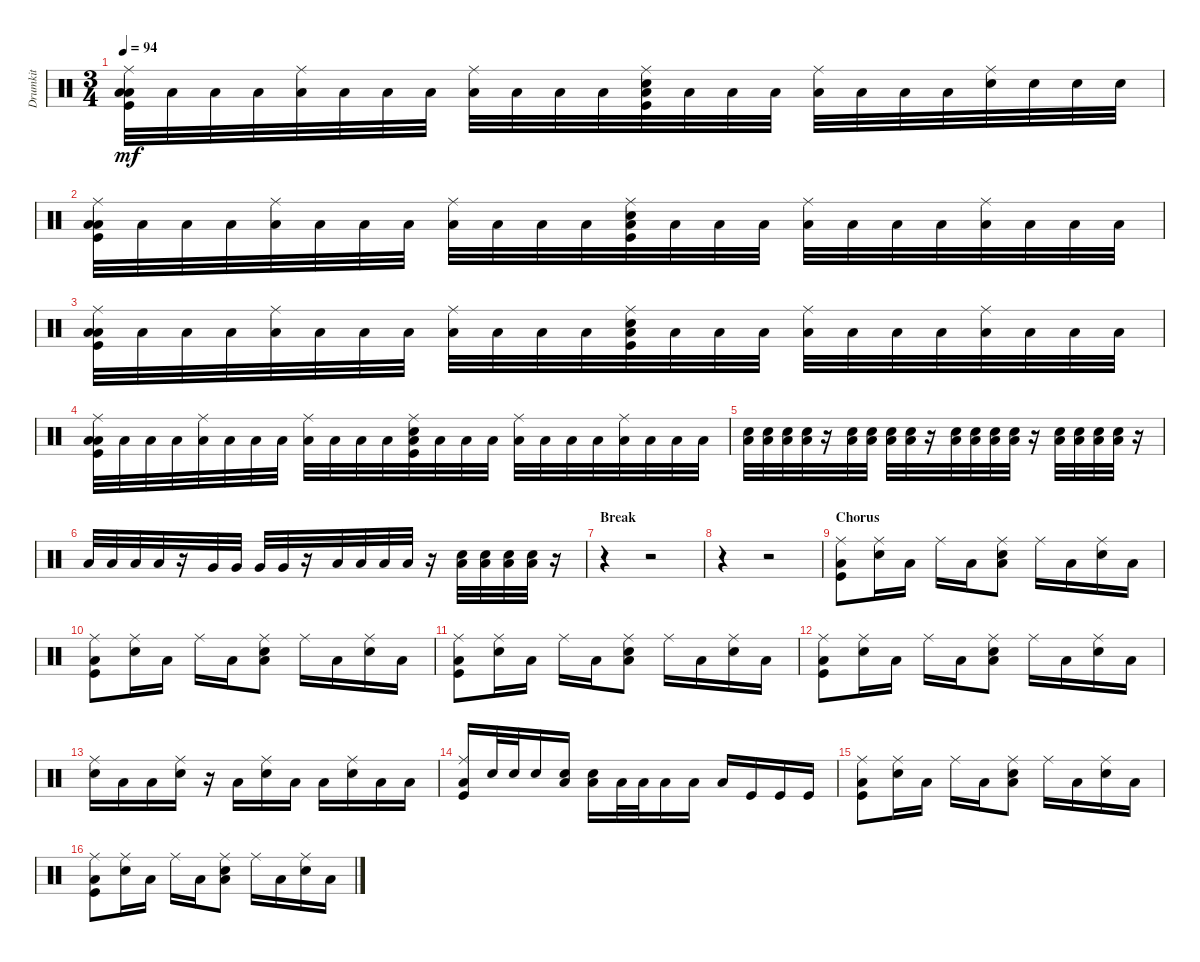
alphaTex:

\track ("Drumkit" "Drumkit") {instrument percussion}
\staff {score}
\articulation defaults
\ts (3 4)
\tempo 94
\clef neutral
\ks c
("Low Tom (hit)" "Ride (middle)" "Kick (hit)" "Low Floor Tom (hit)").32{dy mf} "Low Tom (hit)".32 "Low Tom (hit)".32 "Low Tom (hit)".32 ("Low Tom (hit)" "Ride (middle)").32 "Low Tom (hit)".32 "Low Tom (hit)".32 "Low Tom (hit)".32 ("Low Tom (hit)" "Ride (middle)").32 "Low Tom (hit)".32 "Low Tom (hit)".32 "Low Tom (hit)".32 ("Ride (middle)" "Kick (hit)" "Snare (hit) 2" "Low Tom (hit)").32 "Low Tom (hit)".32 "Low Tom (hit)".32 "Low Tom (hit)".32 ("Low Tom (hit)" "Ride (middle)").32 "Low Tom (hit)".32 "Low Tom (hit)".32 "Low Tom (hit)".32 ("Ride (middle)" "Snare (hit) 2").32 "Snare (hit) 2".32 "Snare (hit) 2".32 "Snare (hit) 2".32 |
("Low Tom (hit)" "Ride (middle)" "Kick (hit)" "Low Floor Tom (hit)").32 "Low Tom (hit)".32 "Low Tom (hit)".32 "Low Tom (hit)".32 ("Low Tom (hit)" "Ride (middle)").32 "Low Tom (hit)".32 "Low Tom (hit)".32 "Low Tom (hit)".32 ("Low Tom (hit)" "Ride (middle)").32 "Low Tom (hit)".32 "Low Tom (hit)".32 "Low Tom (hit)".32 ("Ride (middle)" "Kick (hit)" "Snare (hit) 2" "Low Tom (hit)").32 "Low Tom (hit)".32 "Low Tom (hit)".32 "Low Tom (hit)".32 ("Low Tom (hit)" "Ride (middle)").32 "Low Tom (hit)".32 "Low Tom (hit)".32 "Low Tom (hit)".32 ("Low Tom (hit)" "Ride (middle)").32 "Low Tom (hit)".32 "Low Tom (hit)".32 "Low Tom (hit)".32 |
("Low Tom (hit)" "Ride (middle)" "Kick (hit)" "Low Floor Tom (hit)").32 "Low Tom (hit)".32 "Low Tom (hit)".32 "Low Tom (hit)".32 ("Low Tom (hit)" "Ride (middle)").32 "Low Tom (hit)".32 "Low Tom (hit)".32 "Low Tom (hit)".32 ("Low Tom (hit)" "Ride (middle)").32 "Low Tom (hit)".32 "Low Tom (hit)".32 "Low Tom (hit)".32 ("Ride (middle)" "Kick (hit)" "Snare (hit) 2" "Low Tom (hit)").32 "Low Tom (hit)".32 "Low Tom (hit)".32 "Low Tom (hit)".32 ("Low Tom (hit)" "Ride (middle)").32 "Low Tom (hit)".32 "Low Tom (hit)".32 "Low Tom (hit)".32 ("Low Tom (hit)" "Ride (middle)").32 "Low Tom (hit)".32 "Low Tom (hit)".32 "Low Tom (hit)".32 |
("Low Tom (hit)" "Ride (middle)" "Kick (hit)" "Low Floor Tom (hit)").32 "Low Tom (hit)".32 "Low Tom (hit)".32 "Low Tom (hit)".32 ("Low Tom (hit)" "Ride (middle)").32 "Low Tom (hit)".32 "Low Tom (hit)".32 "Low Tom (hit)".32 ("Low Tom (hit)" "Ride (middle)").32 "Low Tom (hit)".32 "Low Tom (hit)".32 "Low Tom (hit)".32 ("Ride (middle)" "Kick (hit)" "Snare (hit) 2" "Low Tom (hit)").32 "Low Tom (hit)".32 "Low Tom (hit)".32 "Low Tom (hit)".32 ("Low Tom (hit)" "Ride (middle)").32 "Low Tom (hit)".32 "Low Tom (hit)".32 "Low Tom (hit)".32 ("Low Tom (hit)" "Ride (middle)").32 "Low Tom (hit)".32 "Low Tom (hit)".32 "Low Tom (hit)".32 |
("Snare (hit) 2" "Low Tom (hit)").32 ("Snare (hit) 2" "Low Tom (hit)").32 ("Snare (hit) 2" "Low Tom (hit)").32 ("Snare (hit) 2" "Low Tom (hit)").32 r.16 ("Snare (hit) 2" "Low Tom (hit)").32 ("Snare (hit) 2" "Low Tom (hit)").32 ("Snare (hit) 2" "Low Tom (hit)").32 ("Snare (hit) 2" "Low Tom (hit)").32 r.16 ("Snare (hit) 2" "Low Tom (hit)").32 ("Snare (hit) 2" "Low Tom (hit)").32 ("Snare (hit) 2" "Low Tom (hit)").32 ("Snare (hit) 2" "Low Tom (hit)").32 r.16 ("Snare (hit) 2" "Low Tom (hit)").32 ("Snare (hit) 2" "Low Tom (hit)").32 ("Snare (hit) 2" "Low Tom (hit)").32 ("Snare (hit) 2" "Low Tom (hit)").32 r.16 |
"Low Tom (hit)".32 "Low Tom (hit)".32 "Low Tom (hit)".32 "Low Tom (hit)".32 r.16 "Very Low Tom (hit)".32 "Very Low Tom (hit)".32 "Very Low Tom (hit)".32 "Very Low Tom (hit)".32 r.16 "Low Floor Tom (hit)".32 "Low Floor Tom (hit)".32 "Low Floor Tom (hit)".32 "Low Floor Tom (hit)".32 r.16 ("Snare (hit) 2" "Low Tom (hit)").32 ("Snare (hit) 2" "Low Tom (hit)").32 ("Snare (hit) 2" "Low Tom (hit)").32 ("Snare (hit) 2" "Low Tom (hit)").32 r.16 |
\section ("" "Break")
r.4 r.2 |
r.4 r.2 |
\section ("" "Chorus")
("Ride (middle)" "Kick (hit)" "Low Tom (hit)").8 ("Ride (middle)" "Snare (hit) 2").16 "Low Tom (hit)".16 "Ride (middle)".16 "Low Tom (hit)".16 ("Ride (middle)" "Snare (hit) 2" "Low Floor Tom (hit)").8 "Ride (middle)".16 "Low Tom (hit)".16 ("Ride (middle)" "Snare (hit) 2").16 "Low Tom (hit)".16 |
("Ride (middle)" "Kick (hit)" "Low Tom (hit)").8 ("Ride (middle)" "Snare (hit) 2").16 "Low Tom (hit)".16 "Ride (middle)".16 "Low Tom (hit)".16 ("Ride (middle)" "Snare (hit) 2" "Low Floor Tom (hit)").8 "Ride (middle)".16 "Low Tom (hit)".16 ("Ride (middle)" "Snare (hit) 2").16 "Low Tom (hit)".16 |
("Ride (middle)" "Kick (hit)" "Low Tom (hit)").8 ("Ride (middle)" "Snare (hit) 2").16 "Low Tom (hit)".16 "Ride (middle)".16 "Low Tom (hit)".16 ("Ride (middle)" "Snare (hit) 2" "Low Floor Tom (hit)").8 "Ride (middle)".16 "Low Tom (hit)".16 ("Ride (middle)" "Snare (hit) 2").16 "Low Tom (hit)".16 |
("Ride (middle)" "Kick (hit)" "Low Tom (hit)").8 ("Ride (middle)" "Snare (hit) 2").16 "Low Tom (hit)".16 "Ride (middle)".16 "Low Tom (hit)".16 ("Ride (middle)" "Snare (hit) 2" "Low Floor Tom (hit)").8 "Ride (middle)".16 "Low Tom (hit)".16 ("Ride (middle)" "Snare (hit) 2").16 "Low Tom (hit)".16 |
("Snare (hit) 2" "Ride (middle)").16 "Low Tom (hit)".16 "Low Tom (hit)".16 ("Snare (hit) 2" "Ride (middle)").16 r.16 "Low Tom (hit)".16 ("Snare (hit) 2" "Ride (middle)").16 "Low Tom (hit)".16 "Low Tom (hit)".16 ("Snare (hit) 2" "Ride (middle)").16 "Low Tom (hit)".16 "Low Tom (hit)".16 |
("Ride (middle)" "Kick (hit)" "Low Tom (hit)").16 "Snare (hit) 2".32 "Snare (hit) 2".32 "Snare (hit) 2".16 ("Snare (hit) 2" "Low Tom (hit)").16 ("Low Tom (hit)" "Snare (hit) 2").16 "Low Tom (hit)".32 "Low Tom (hit)".32 "Low Tom (hit)".16 "Low Floor Tom (hit)".16 "Low Floor Tom (hit)".16 "Kick (hit)".16 "Kick (hit)".16 "Kick (hit)".16 |
("Ride (middle)" "Kick (hit)" "Low Tom (hit)").8 ("Ride (middle)" "Snare (hit) 2").16 "Low Tom (hit)".16 "Ride (middle)".16 "Low Tom (hit)".16 ("Ride (middle)" "Snare (hit) 2" "Low Floor Tom (hit)").8 "Ride (middle)".16 "Low Tom (hit)".16 ("Ride (middle)" "Snare (hit) 2").16 "Low Tom (hit)".16 |
("Ride (middle)" "Kick (hit)" "Low Tom (hit)").8 ("Ride (middle)" "Snare (hit) 2").16 "Low Tom (hit)".16 "Ride (middle)".16 "Low Tom (hit)".16 ("Ride (middle)" "Snare (hit) 2" "Low Floor Tom (hit)").8 "Ride (middle)".16 "Low Tom (hit)".16 ("Ride (middle)" "Snare (hit) 2").16 "Low Tom (hit)".16
